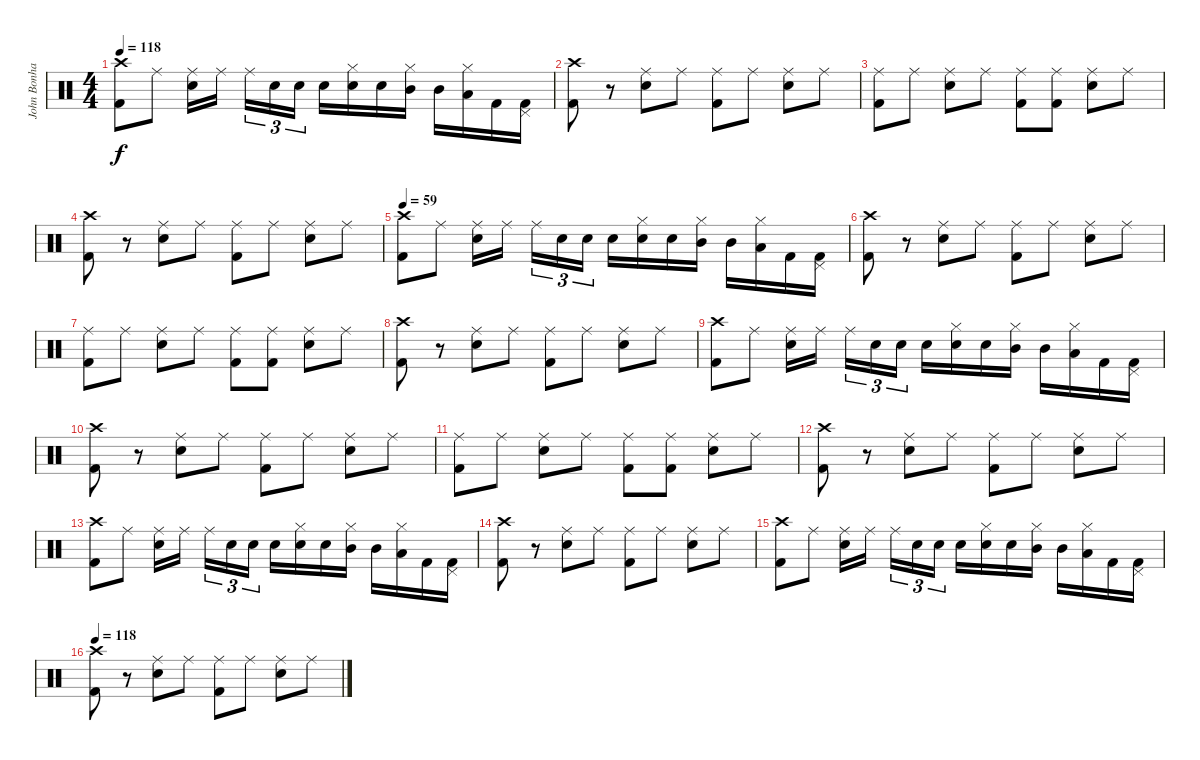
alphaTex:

\track ("John Bonham (Bateria)" "John Bonha") {instrument percussion}
\staff {score}
\articulation defaults
\ts (4 4)
\tempo 118
\clef neutral
\ks c
("Crash high (hit)" "Kick (hit) 2").8{dy f} "Ride (middle)".8 ("Snare (hit) 2" "Ride (middle)").16 "Ride (middle)".16{beam splitsecondary} "Ride (middle)".16{tu (3 2)} "Snare (hit) 2".16{tu (3 2)} "Snare (hit) 2".16{tu (3 2)} "Snare (hit) 2".16 ("Snare (hit) 2" "Hi-Hat (closed)").16 "Snare (hit) 2".16 ("Mid Tom (hit)" "Hi-Hat (closed)").16 "Mid Tom (hit)".16 ("Low Floor Tom (hit)" "Hi-Hat (closed)").16 "Kick (hit) 2".16 ("Pedal Hi-Hat (hit)" "Kick (hit) 2").16 |
("Crash high (hit)" "Kick (hit) 2").8 r.8 ("Snare (hit) 2" "Ride (middle)").8 "Ride (middle)".8 ("Ride (middle)" "Kick (hit) 2").8 "Ride (middle)".8 ("Ride (middle)" "Snare (hit) 2").8 "Ride (middle)".8 |
("Ride (middle)" "Kick (hit) 2").8 "Ride (middle)".8 ("Snare (hit) 2" "Ride (middle)").8 "Ride (middle)".8 ("Ride (middle)" "Kick (hit) 2").8 ("Ride (middle)" "Kick (hit) 2").8 ("Ride (middle)" "Snare (hit) 2").8 "Ride (middle)".8 |
("Crash high (hit)" "Kick (hit) 2").8 r.8 ("Snare (hit) 2" "Ride (middle)").8 "Ride (middle)".8 ("Ride (middle)" "Kick (hit) 2").8 "Ride (middle)".8 ("Ride (middle)" "Snare (hit) 2").8 "Ride (middle)".8 |
\tempo 59
("Crash high (hit)" "Kick (hit) 2").8 "Ride (middle)".8 ("Snare (hit) 2" "Ride (middle)").16 "Ride (middle)".16{beam splitsecondary} "Ride (middle)".16{tu (3 2)} "Snare (hit) 2".16{tu (3 2)} "Snare (hit) 2".16{tu (3 2)} "Snare (hit) 2".16 ("Snare (hit) 2" "Hi-Hat (closed)").16 "Snare (hit) 2".16 ("Mid Tom (hit)" "Hi-Hat (closed)").16 "Mid Tom (hit)".16 ("Low Floor Tom (hit)" "Hi-Hat (closed)").16 "Kick (hit) 2".16 ("Pedal Hi-Hat (hit)" "Kick (hit) 2").16 |
("Crash high (hit)" "Kick (hit) 2").8 r.8 ("Snare (hit) 2" "Ride (middle)").8 "Ride (middle)".8 ("Ride (middle)" "Kick (hit) 2").8 "Ride (middle)".8 ("Ride (middle)" "Snare (hit) 2").8 "Ride (middle)".8 |
("Ride (middle)" "Kick (hit) 2").8 "Ride (middle)".8 ("Snare (hit) 2" "Ride (middle)").8 "Ride (middle)".8 ("Ride (middle)" "Kick (hit) 2").8 ("Ride (middle)" "Kick (hit) 2").8 ("Ride (middle)" "Snare (hit) 2").8 "Ride (middle)".8 |
("Crash high (hit)" "Kick (hit) 2").8 r.8 ("Snare (hit) 2" "Ride (middle)").8 "Ride (middle)".8 ("Ride (middle)" "Kick (hit) 2").8 "Ride (middle)".8 ("Ride (middle)" "Snare (hit) 2").8 "Ride (middle)".8 |
("Crash high (hit)" "Kick (hit) 2").8 "Ride (middle)".8 ("Snare (hit) 2" "Ride (middle)").16 "Ride (middle)".16{beam splitsecondary} "Ride (middle)".16{tu (3 2)} "Snare (hit) 2".16{tu (3 2)} "Snare (hit) 2".16{tu (3 2)} "Snare (hit) 2".16 ("Snare (hit) 2" "Hi-Hat (closed)").16 "Snare (hit) 2".16 ("Mid Tom (hit)" "Hi-Hat (closed)").16 "Mid Tom (hit)".16 ("Low Floor Tom (hit)" "Hi-Hat (closed)").16 "Kick (hit) 2".16 ("Pedal Hi-Hat (hit)" "Kick (hit) 2").16 |
("Crash high (hit)" "Kick (hit) 2").8 r.8 ("Snare (hit) 2" "Ride (middle)").8 "Ride (middle)".8 ("Ride (middle)" "Kick (hit) 2").8 "Ride (middle)".8 ("Ride (middle)" "Snare (hit) 2").8 "Ride (middle)".8 |
("Ride (middle)" "Kick (hit) 2").8 "Ride (middle)".8 ("Snare (hit) 2" "Ride (middle)").8 "Ride (middle)".8 ("Ride (middle)" "Kick (hit) 2").8 ("Ride (middle)" "Kick (hit) 2").8 ("Ride (middle)" "Snare (hit) 2").8 "Ride (middle)".8 |
("Crash high (hit)" "Kick (hit) 2").8 r.8 ("Snare (hit) 2" "Ride (middle)").8 "Ride (middle)".8 ("Ride (middle)" "Kick (hit) 2").8 "Ride (middle)".8 ("Ride (middle)" "Snare (hit) 2").8 "Ride (middle)".8 |
("Crash high (hit)" "Kick (hit) 2").8 "Ride (middle)".8 ("Snare (hit) 2" "Ride (middle)").16 "Ride (middle)".16{beam splitsecondary} "Ride (middle)".16{tu (3 2)} "Snare (hit) 2".16{tu (3 2)} "Snare (hit) 2".16{tu (3 2)} "Snare (hit) 2".16 ("Snare (hit) 2" "Hi-Hat (closed)").16 "Snare (hit) 2".16 ("Mid Tom (hit)" "Hi-Hat (closed)").16 "Mid Tom (hit)".16 ("Low Floor Tom (hit)" "Hi-Hat (closed)").16 "Kick (hit) 2".16 ("Pedal Hi-Hat (hit)" "Kick (hit) 2").16 |
("Crash high (hit)" "Kick (hit) 2").8 r.8 ("Snare (hit) 2" "Ride (middle)").8 "Ride (middle)".8 ("Ride (middle)" "Kick (hit) 2").8 "Ride (middle)".8 ("Ride (middle)" "Snare (hit) 2").8 "Ride (middle)".8 |
("Crash high (hit)" "Kick (hit) 2").8 "Ride (middle)".8 ("Snare (hit) 2" "Ride (middle)").16 "Ride (middle)".16{beam splitsecondary} "Ride (middle)".16{tu (3 2)} "Snare (hit) 2".16{tu (3 2)} "Snare (hit) 2".16{tu (3 2)} "Snare (hit) 2".16 ("Snare (hit) 2" "Hi-Hat (closed)").16 "Snare (hit) 2".16 ("Mid Tom (hit)" "Hi-Hat (closed)").16 "Mid Tom (hit)".16 ("Low Floor Tom (hit)" "Hi-Hat (closed)").16 "Kick (hit) 2".16 ("Pedal Hi-Hat (hit)" "Kick (hit) 2").16 |
\tempo 118
("Crash high (hit)" "Kick (hit) 2").8 r.8 ("Snare (hit) 2" "Ride (middle)").8 "Ride (middle)".8 ("Ride (middle)" "Kick (hit) 2").8 "Ride (middle)".8 ("Ride (middle)" "Snare (hit) 2").8 "Ride (middle)".8
